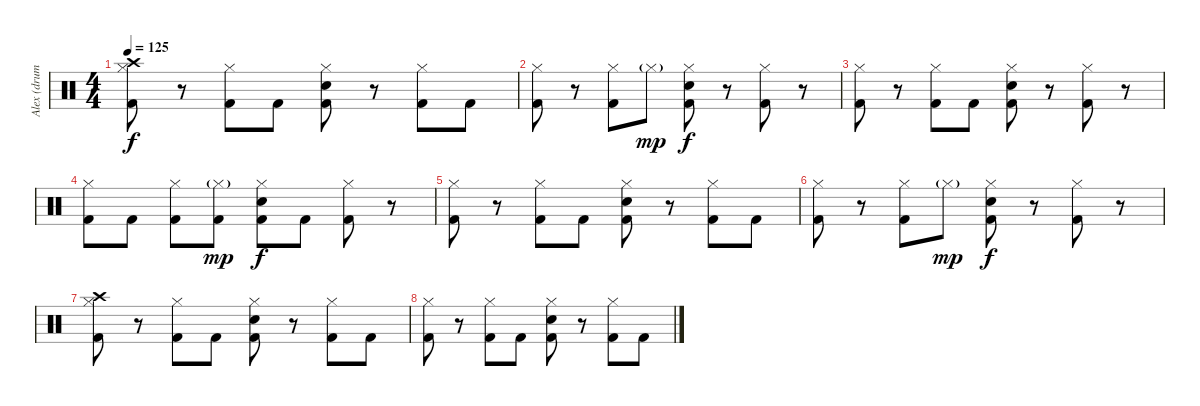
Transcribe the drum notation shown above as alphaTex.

\track ("Alex (drums)" "Alex (drum") {instrument percussion}
\staff {score}
\articulation defaults
\ts (4 4)
\tempo 125
\clef neutral
\ks c
("Hi-Hat (closed)" "Kick (hit) 2" "Crash high (hit)").8{dy f} r.8 ("Hi-Hat (closed)" "Kick (hit) 2").8 "Kick (hit) 2".8 ("Hi-Hat (closed)" "Snare (hit) 2" "Kick (hit) 2").8 r.8 ("Hi-Hat (closed)" "Kick (hit) 2").8 "Kick (hit) 2".8 |
("Hi-Hat (closed)" "Kick (hit) 2").8 r.8 ("Hi-Hat (closed)" "Kick (hit) 2").8 "Hi-Hat (closed)"{g}.8{dy mp} ("Hi-Hat (closed)" "Snare (hit) 2" "Kick (hit) 2").8{dy f} r.8 ("Hi-Hat (closed)" "Kick (hit) 2").8 r.8 |
("Hi-Hat (closed)" "Kick (hit) 2").8 r.8 ("Hi-Hat (closed)" "Kick (hit) 2").8 "Kick (hit) 2".8 ("Hi-Hat (closed)" "Snare (hit) 2" "Kick (hit) 2").8 r.8 ("Hi-Hat (closed)" "Kick (hit) 2").8 r.8 |
("Hi-Hat (closed)" "Kick (hit) 2").8 "Kick (hit) 2".8 ("Hi-Hat (closed)" "Kick (hit) 2").8 ("Hi-Hat (closed)"{g} "Kick (hit) 2").8{dy mp} ("Hi-Hat (closed)" "Snare (hit) 2" "Kick (hit) 2").8{dy f} "Kick (hit) 2".8 ("Hi-Hat (closed)" "Kick (hit) 2").8 r.8 |
("Hi-Hat (closed)" "Kick (hit) 2").8 r.8 ("Hi-Hat (closed)" "Kick (hit) 2").8 "Kick (hit) 2".8 ("Hi-Hat (closed)" "Snare (hit) 2" "Kick (hit) 2").8 r.8 ("Hi-Hat (closed)" "Kick (hit) 2").8 "Kick (hit) 2".8 |
("Hi-Hat (closed)" "Kick (hit) 2").8 r.8 ("Hi-Hat (closed)" "Kick (hit) 2").8 "Hi-Hat (closed)"{g}.8{dy mp} ("Hi-Hat (closed)" "Snare (hit) 2" "Kick (hit) 2").8{dy f} r.8 ("Hi-Hat (closed)" "Kick (hit) 2").8 r.8 |
("Hi-Hat (closed)" "Kick (hit) 2" "Crash high (hit)").8 r.8 ("Hi-Hat (closed)" "Kick (hit) 2").8 "Kick (hit) 2".8 ("Hi-Hat (closed)" "Snare (hit) 2" "Kick (hit) 2").8 r.8 ("Hi-Hat (closed)" "Kick (hit) 2").8 "Kick (hit) 2".8 |
("Hi-Hat (closed)" "Kick (hit) 2").8 r.8 ("Hi-Hat (closed)" "Kick (hit) 2").8 "Kick (hit) 2".8 ("Hi-Hat (closed)" "Snare (hit) 2" "Kick (hit) 2").8 r.8 ("Hi-Hat (closed)" "Kick (hit) 2").8 "Kick (hit) 2".8
